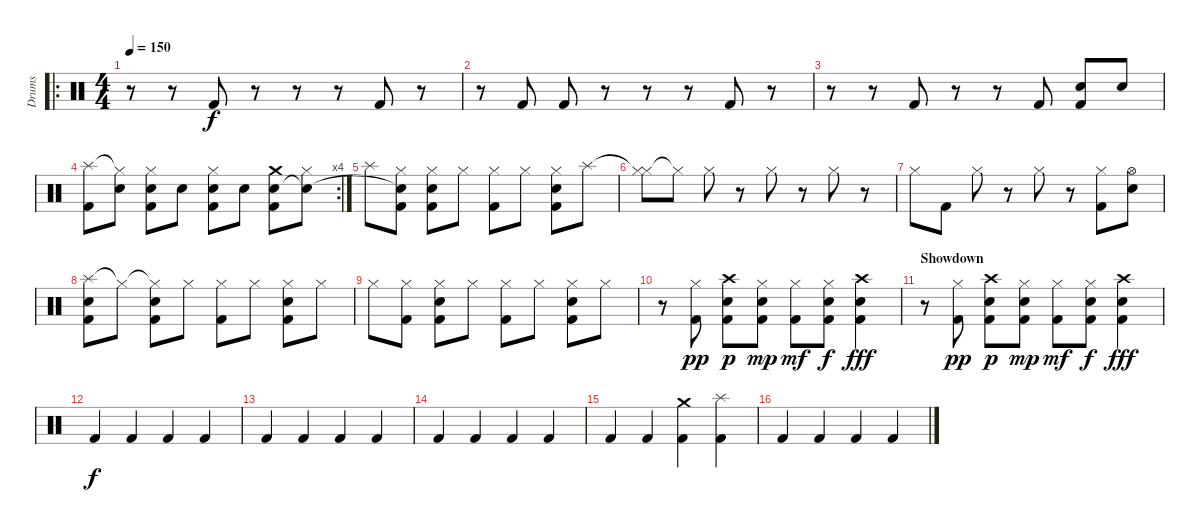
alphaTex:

\track ("Drums" "Drums") {instrument percussion}
\staff {score}
\articulation defaults
\ro
\ts (4 4)
\tempo 150
\clef neutral
\ks c
r.8{dy f volume 12} r.8 "Kick (hit) 2".8 r.8 r.8 r.8 "Kick (hit) 2".8 r.8 |
r.8 "Kick (hit) 2".8 "Kick (hit) 2".8 r.8 r.8 r.8 "Kick (hit) 2".8 r.8 |
r.8 r.8 "Kick (hit) 2".8 r.8 r.8 "Kick (hit) 2".8 ("Snare (hit) 2" "Kick (hit) 2").8 "Snare (hit) 2".8 |
\rc 4
("Splash (hit)" "Kick (hit) 2").8 ("Hi-Hat (closed)"{t} "Snare (hit) 2").8 ("Hi-Hat (closed)" "Snare (hit) 2" "Kick (hit) 2").8 "Snare (hit) 2".8 ("Hi-Hat (closed)" "Snare (hit) 2" "Kick (hit) 2").8 "Snare (hit) 2".8 ("Crash medium (hit)" "Snare (hit) 2" "Kick (hit) 2").8 ("Hi-Hat (closed)" "Snare (hit)"{t}).8 |
"Splash (hit)".8 ("Hi-Hat (closed)" "Snare (hit)"{t} "Kick (hit) 2").8 ("Hi-Hat (closed)" "Snare (hit) 2" "Kick (hit) 2").8 "Hi-Hat (closed)".8 ("Hi-Hat (closed)" "Kick (hit) 2").8 "Hi-Hat (closed)".8 ("Hi-Hat (closed)" "Snare (hit) 2" "Kick (hit) 2").8 "Splash (hit)".8 |
("Hi-Hat (closed)"{t} "Hi-Hat (closed)").8 "Hi-Hat (closed)"{t}.8 "Hi-Hat (closed)".8 r.8 "Hi-Hat (closed)".8 r.8 "Hi-Hat (closed)".8 r.8 |
"Hi-Hat (closed)".8 "Kick (hit) 2".8 "Hi-Hat (closed)".8 r.8 "Hi-Hat (closed)".8 r.8 ("Hi-Hat (closed)" "Kick (hit) 2").8 ("Hi-Hat (open)" "Snare (hit) 2").8 |
("Splash (hit)" "Snare (hit) 2" "Kick (hit) 2").8 "Hi-Hat (closed)"{t}.8 ("Hi-Hat (closed)"{t} "Snare (hit) 2" "Kick (hit) 2").8 "Hi-Hat (closed)".8 ("Hi-Hat (closed)" "Kick (hit) 2").8 "Hi-Hat (closed)".8 ("Hi-Hat (closed)" "Snare (hit) 2" "Kick (hit) 2").8 "Hi-Hat (closed)".8 |
"Hi-Hat (closed)".8 ("Hi-Hat (closed)" "Kick (hit) 2").8 ("Hi-Hat (closed)" "Snare (hit) 2" "Kick (hit) 2").8 "Hi-Hat (closed)".8 ("Hi-Hat (closed)" "Kick (hit) 2").8 "Hi-Hat (closed)".8 ("Hi-Hat (closed)" "Snare (hit) 2" "Kick (hit) 2").8 "Hi-Hat (closed)".8 |
r.8 ("Hi-Hat (closed)" "Kick (hit) 2").8{dy pp} ("Crash high (hit)" "Snare (hit) 2" "Kick (hit) 2").8{dy p} ("Hi-Hat (closed)" "Snare (hit) 2" "Kick (hit) 2").8{dy mp} ("Hi-Hat (closed)" "Kick (hit) 2").8{dy mf} ("Hi-Hat (closed)" "Snare (hit) 2" "Kick (hit) 2").8{dy f} ("Crash high (hit)" "Snare (hit) 2" "Kick (hit) 2").4{dy fff} |
\section ("" "Showdown")
r.8 ("Hi-Hat (closed)" "Kick (hit) 2").8{dy pp} ("Crash high (hit)" "Snare (hit) 2" "Kick (hit) 2").8{dy p} ("Hi-Hat (closed)" "Snare (hit) 2" "Kick (hit) 2").8{dy mp} ("Hi-Hat (closed)" "Kick (hit) 2").8{dy mf} ("Hi-Hat (closed)" "Snare (hit) 2" "Kick (hit) 2").8{dy f} ("Crash high (hit)" "Snare (hit) 2" "Kick (hit) 2").4{dy fff} |
"Kick (hit) 2".4{dy f} "Kick (hit) 2".4 "Kick (hit) 2".4 "Kick (hit) 2".4 |
"Kick (hit) 2".4 "Kick (hit) 2".4 "Kick (hit) 2".4 "Kick (hit) 2".4 |
"Kick (hit) 2".4 "Kick (hit) 2".4 "Kick (hit) 2".4 "Kick (hit) 2".4 |
"Kick (hit) 2".4 "Kick (hit) 2".4 ("Crash medium (hit)" "Kick (hit) 2").4 ("Splash (hit)" "Kick (hit) 2").4 |
"Kick (hit) 2".4 "Kick (hit) 2".4 "Kick (hit) 2".4 "Kick (hit) 2".4
